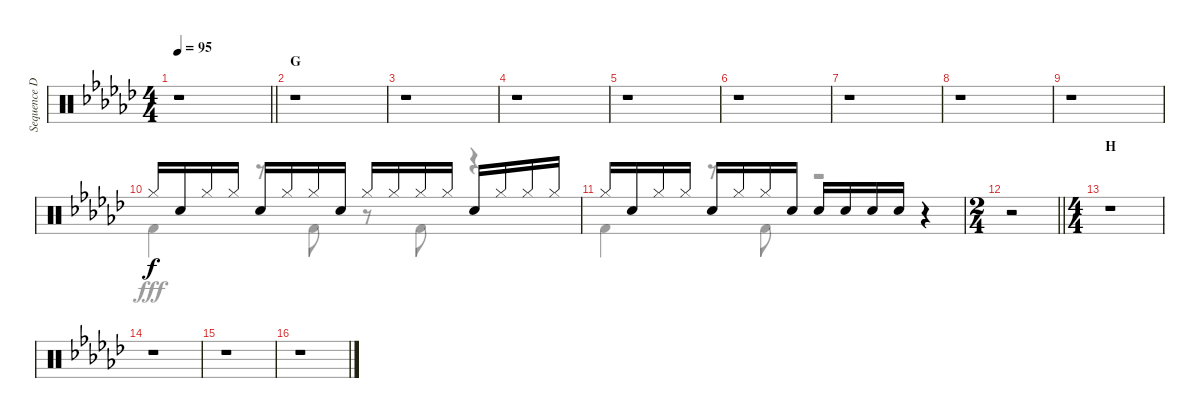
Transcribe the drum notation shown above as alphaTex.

\track ("Sequence Drums" "Sequence D") {instrument percussion}
\staff {score}
\articulation defaults
\voice
\ts (4 4)
\tempo 95
\clef neutral
\barLineRight lightlight
\ks gb
r.1{dy f} |
\section ("" "G")
r.1 |
r.1 |
r.1 |
r.1 |
r.1 |
r.1 |
r.1 |
r.1 |
"Hi-Hat (closed)".16 "Snare (hit) 2".16 "Hi-Hat (closed)".16 "Hi-Hat (closed)".16 "Snare (hit) 2".16 "Hi-Hat (closed)".16 "Hi-Hat (closed)".16 "Snare (hit) 2".16 "Hi-Hat (closed)".16 "Hi-Hat (closed)".16 "Hi-Hat (closed)".16 "Hi-Hat (closed)".16 "Snare (hit) 2".16 "Hi-Hat (closed)".16 "Hi-Hat (closed)".16 "Hi-Hat (closed)".16 |
"Hi-Hat (closed)".16 "Snare (hit) 2".16 "Hi-Hat (closed)".16 "Hi-Hat (closed)".16 "Snare (hit) 2".16 "Hi-Hat (closed)".16 "Hi-Hat (closed)".16 "Snare (hit) 2".16 "Snare (hit) 2".16 "Snare (hit) 2".16 "Snare (hit) 2".16 "Snare (hit) 2".16 r.4 |
\ts (2 4)
\barLineRight lightlight
r.2 |
\ts (4 4)
\section ("" "H")
r.1 |
r.1 |
r.1 |
r.1
\voice
\clef neutral
\ottava regular
\simile none
\barLineRight lightlight
\ks gb
r.1{dy fff} |
r.1 |
r.1 |
r.1 |
r.1 |
r.1 |
r.1 |
r.1 |
r.1 |
"Kick (hit) 2".4 r.8 "Kick (hit) 2".8 r.8 "Kick (hit) 2".8 r.4 |
"Kick (hit) 2".4 r.8 "Kick (hit) 2".8 r.2 |
\barLineRight lightlight
r.2 |
r.1 |
r.1 |
r.1 |
r.1
